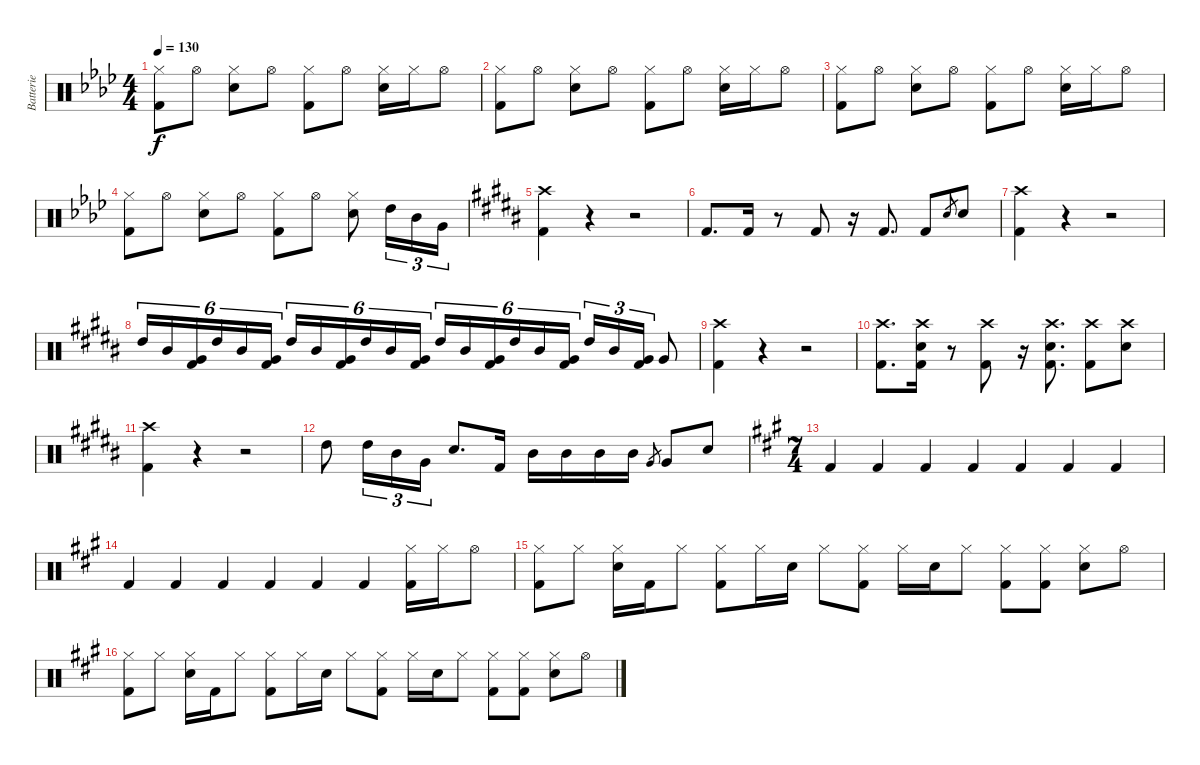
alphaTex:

\track ("Batterie" "Batterie") {instrument percussion}
\staff {score}
\articulation defaults
\ts (4 4)
\tempo 130
\clef neutral
\ks ab
("Hi-Hat (closed)" "Kick (hit) 2").8{dy f} "Hi-Hat (open)".8 ("Hi-Hat (closed)" "Snare (hit) 2").8 "Hi-Hat (open)".8 ("Hi-Hat (closed)" "Kick (hit) 2").8 "Hi-Hat (open)".8 ("Hi-Hat (closed)" "Snare (hit) 2").16 "Hi-Hat (closed)".16 "Hi-Hat (open)".8 |
("Hi-Hat (closed)" "Kick (hit) 2").8 "Hi-Hat (open)".8 ("Hi-Hat (closed)" "Snare (hit) 2").8 "Hi-Hat (open)".8 ("Hi-Hat (closed)" "Kick (hit) 2").8 "Hi-Hat (open)".8 ("Hi-Hat (closed)" "Snare (hit) 2").16 "Hi-Hat (closed)".16 "Hi-Hat (open)".8 |
("Hi-Hat (closed)" "Kick (hit) 2").8 "Hi-Hat (open)".8 ("Hi-Hat (closed)" "Snare (hit) 2").8 "Hi-Hat (open)".8 ("Hi-Hat (closed)" "Kick (hit) 2").8 "Hi-Hat (open)".8 ("Hi-Hat (closed)" "Snare (hit) 2").16 "Hi-Hat (closed)".16 "Hi-Hat (open)".8 |
("Hi-Hat (closed)" "Kick (hit) 2").8 "Hi-Hat (open)".8 ("Hi-Hat (closed)" "Snare (hit) 2").8 "Hi-Hat (open)".8 ("Hi-Hat (closed)" "Kick (hit) 2").8 "Hi-Hat (open)".8 ("Hi-Hat (closed)" "Snare (hit) 2").8 "High Tom (hit)".16{tu (3 2)} "Mid Tom (hit)".16{tu (3 2)} "Very Low Tom (hit)".16{tu (3 2)} |
\ks b
("Crash high (hit)" "Kick (hit) 2").4 r.4 r.2 |
"Kick (hit) 2".8{d} "Kick (hit) 2".16 r.8 "Kick (hit) 2".8 r.16 "Kick (hit) 2".8{d} "Kick (hit) 2".8 "Snare (hit) 2".8{gr} "Snare (hit) 2".8 |
("Crash high (hit)" "Kick (hit) 2").4 r.4 r.2 |
"High Tom (hit)".16{tu (6 4)} "Mid Tom (hit)".16{tu (6 4)} ("Very Low Tom (hit)" "Kick (hit) 2").16{tu (6 4)} "High Tom (hit)".16{tu (6 4)} "Mid Tom (hit)".16{tu (6 4)} ("Very Low Tom (hit)" "Kick (hit) 2").16{tu (6 4)} "High Tom (hit)".16{tu (6 4)} "Mid Tom (hit)".16{tu (6 4)} ("Very Low Tom (hit)" "Kick (hit) 2").16{tu (6 4)} "High Tom (hit)".16{tu (6 4)} "Mid Tom (hit)".16{tu (6 4)} ("Very Low Tom (hit)" "Kick (hit) 2").16{tu (6 4)} "High Tom (hit)".16{tu (6 4)} "Mid Tom (hit)".16{tu (6 4)} ("Very Low Tom (hit)" "Kick (hit) 2").16{tu (6 4)} "High Tom (hit)".16{tu (6 4)} "Mid Tom (hit)".16{tu (6 4)} ("Very Low Tom (hit)" "Kick (hit) 2").16{tu (6 4)} "High Tom (hit)".16{tu (3 2)} "Mid Tom (hit)".16{tu (3 2)} ("Very Low Tom (hit)" "Kick (hit) 2").16{tu (3 2)} "Very Low Tom (hit)".8 |
("Crash high (hit)" "Kick (hit) 2").4 r.4 r.2 |
("Crash high (hit)" "Kick (hit) 2").8{d} ("Crash high (hit)" "Snare (hit) 2" "Kick (hit) 2").16 r.8 ("Crash high (hit)" "Kick (hit) 2").8 r.16 ("Crash high (hit)" "Snare (hit) 2" "Kick (hit) 2").8{d} ("Crash high (hit)" "Kick (hit) 2").8 ("Crash high (hit)" "Snare (hit) 2").8 |
("Crash high (hit)" "Kick (hit) 2").4 r.4 r.2 |
"High Tom (hit)".8 "High Tom (hit)".16{tu (3 2)} "Mid Tom (hit)".16{tu (3 2)} "Very Low Tom (hit)".16{tu (3 2)} "Snare (hit) 2".8{d} "Kick (hit) 2".16 "Mid Tom (hit)".16 "Mid Tom (hit)".16 "Mid Tom (hit)".16 "Mid Tom (hit)".16 "Very Low Tom (hit)".8{gr} "Very Low Tom (hit)".8 "Snare (hit) 2".8 |
\ts (7 4)
\ks a "Kick (hit) 2".4 "Kick (hit) 2".4 "Kick (hit) 2".4 "Kick (hit) 2".4 "Kick (hit) 2".4 "Kick (hit) 2".4 "Kick (hit) 2".4
|
"Kick (hit) 2".4 "Kick (hit) 2".4 "Kick (hit) 2".4 "Kick (hit) 2".4 "Kick (hit) 2".4 "Kick (hit) 2".4 ("Hi-Hat (closed)" "Kick (hit) 2").16 "Hi-Hat (closed)".16 "Hi-Hat (open)".8 |
("Hi-Hat (closed)" "Kick (hit) 2").8 "Hi-Hat (closed)".8 ("Hi-Hat (closed)" "Snare (hit) 2").16 "Kick (hit) 2".16 "Hi-Hat (closed)".8 ("Hi-Hat (closed)" "Kick (hit) 2").8 "Hi-Hat (closed)".16 "Snare (hit) 2".16 "Hi-Hat (closed)".8 ("Hi-Hat (closed)" "Kick (hit) 2").8 "Hi-Hat (closed)".16 "Snare (hit) 2".16 "Hi-Hat (closed)".8 ("Hi-Hat (closed)" "Kick (hit) 2").8 ("Hi-Hat (closed)" "Kick (hit) 2").8 ("Hi-Hat (closed)" "Snare (hit) 2").8 "Hi-Hat (open)".8 |
("Hi-Hat (closed)" "Kick (hit) 2").8 "Hi-Hat (closed)".8 ("Hi-Hat (closed)" "Snare (hit) 2").16 "Kick (hit) 2".16 "Hi-Hat (closed)".8 ("Hi-Hat (closed)" "Kick (hit) 2").8 "Hi-Hat (closed)".16 "Snare (hit) 2".16 "Hi-Hat (closed)".8 ("Hi-Hat (closed)" "Kick (hit) 2").8 "Hi-Hat (closed)".16 "Snare (hit) 2".16 "Hi-Hat (closed)".8 ("Hi-Hat (closed)" "Kick (hit) 2").8 ("Hi-Hat (closed)" "Kick (hit) 2").8 ("Hi-Hat (closed)" "Snare (hit) 2").8 "Hi-Hat (open)".8
